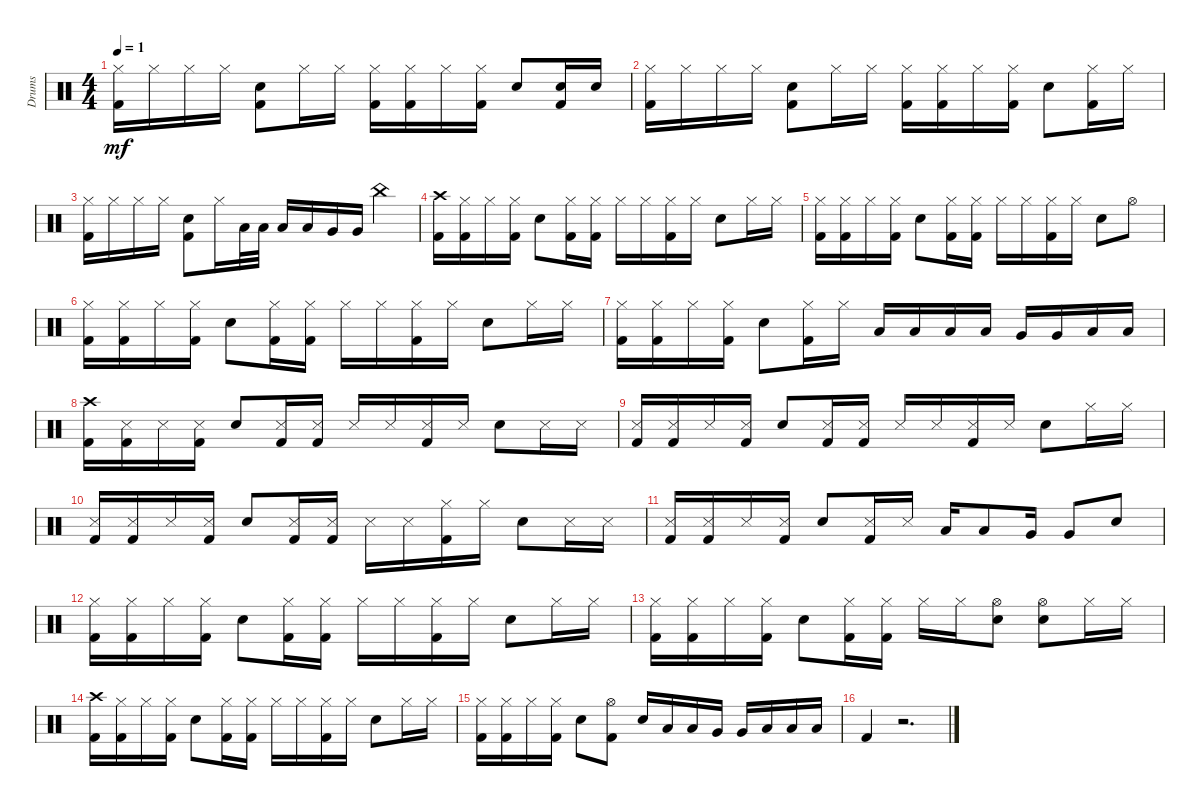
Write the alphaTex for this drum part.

\track ("Drums" "Drums") {instrument percussion}
\staff {score}
\articulation defaults
\ts (4 4)
\tempo 1
\clef neutral
\ks c
("Kick (hit) 2" "Hi-Hat (closed)").16{dy mf} "Hi-Hat (closed)".16 "Hi-Hat (closed)".16 "Hi-Hat (closed)".16 ("Kick (hit) 2" "Snare (hit) 2").8 "Hi-Hat (closed)".16 "Hi-Hat (closed)".16 ("Hi-Hat (closed)" "Kick (hit) 2").16 ("Hi-Hat (closed)" "Kick (hit) 2").16 "Hi-Hat (closed)".16 ("Hi-Hat (closed)" "Kick (hit) 2").16 "Snare (hit) 2".8 ("Snare (hit) 2" "Kick (hit) 2").16 "Snare (hit) 2".16 |
("Kick (hit) 2" "Hi-Hat (closed)").16 "Hi-Hat (closed)".16 "Hi-Hat (closed)".16 "Hi-Hat (closed)".16 ("Kick (hit) 2" "Snare (hit) 2").8 "Hi-Hat (closed)".16 "Hi-Hat (closed)".16 ("Hi-Hat (closed)" "Kick (hit) 2").16 ("Hi-Hat (closed)" "Kick (hit) 2").16 "Hi-Hat (closed)".16 ("Hi-Hat (closed)" "Kick (hit) 2").16 "Snare (hit) 2".8 ("Hi-Hat (closed)" "Kick (hit) 2").16 "Hi-Hat (closed)".16 |
("Kick (hit) 2" "Hi-Hat (closed)").16 "Hi-Hat (closed)".16 "Hi-Hat (closed)".16 "Hi-Hat (closed)".16 ("Kick (hit) 2" "Snare (hit) 2").8 "Hi-Hat (closed)".16 "Low Tom (hit)".32 "Low Tom (hit)".32 "Low Tom (hit)".16 "Low Tom (hit)".16 "Very Low Tom (hit)".16 "Very Low Tom (hit)".16 "China (hit)".4 |
("Kick (hit) 2" "Crash high (hit)").16 ("Hi-Hat (closed)" "Kick (hit) 2").16 "Hi-Hat (closed)".16 ("Hi-Hat (closed)" "Kick (hit) 2").16 "Snare (hit) 2".8 ("Hi-Hat (closed)" "Kick (hit) 2").16 ("Hi-Hat (closed)" "Kick (hit) 2").16 "Hi-Hat (closed)".16 "Hi-Hat (closed)".16 ("Hi-Hat (closed)" "Kick (hit) 2").16 "Hi-Hat (closed)".16 "Snare (hit) 2".8 "Hi-Hat (closed)".16 "Hi-Hat (closed)".16 |
("Hi-Hat (closed)" "Kick (hit) 2").16 ("Hi-Hat (closed)" "Kick (hit) 2").16 "Hi-Hat (closed)".16 ("Hi-Hat (closed)" "Kick (hit) 2").16 "Snare (hit) 2".8 ("Hi-Hat (closed)" "Kick (hit) 2").16 ("Hi-Hat (closed)" "Kick (hit) 2").16 "Hi-Hat (closed)".16 "Hi-Hat (closed)".16 ("Hi-Hat (closed)" "Kick (hit) 2").16 "Hi-Hat (closed)".16 "Snare (hit) 2".8 "Hi-Hat (open)".8 |
("Hi-Hat (closed)" "Kick (hit) 2").16 ("Hi-Hat (closed)" "Kick (hit) 2").16 "Hi-Hat (closed)".16 ("Hi-Hat (closed)" "Kick (hit) 2").16 "Snare (hit) 2".8 ("Hi-Hat (closed)" "Kick (hit) 2").16 ("Hi-Hat (closed)" "Kick (hit) 2").16 "Hi-Hat (closed)".16 "Hi-Hat (closed)".16 ("Hi-Hat (closed)" "Kick (hit) 2").16 "Hi-Hat (closed)".16 "Snare (hit) 2".8 "Hi-Hat (closed)".16 "Hi-Hat (closed)".16 |
("Hi-Hat (closed)" "Kick (hit) 2").16 ("Hi-Hat (closed)" "Kick (hit) 2").16 "Hi-Hat (closed)".16 ("Hi-Hat (closed)" "Kick (hit) 2").16 "Snare (hit) 2".8 ("Hi-Hat (closed)" "Kick (hit) 2").16 "Hi-Hat (closed)".16 "Low Tom (hit)".16 "Low Tom (hit)".16 "Low Tom (hit)".16 "Low Tom (hit)".16 "Very Low Tom (hit)".16 "Very Low Tom (hit)".16 "Low Floor Tom (hit)".16 "Low Floor Tom (hit)".16 |
("Kick (hit) 2" "Crash high (hit)").16 ("Kick (hit) 2" "Snare (side stick) 3").16 "Snare (side stick) 3".16 ("Kick (hit) 2" "Snare (side stick) 3").16 "Snare (hit) 2".8 ("Kick (hit) 2" "Snare (side stick) 3").16 ("Kick (hit) 2" "Snare (side stick) 3").16 "Snare (side stick) 3".16 "Snare (side stick) 3".16 ("Kick (hit) 2" "Snare (side stick) 3").16 "Snare (side stick) 3".16 "Snare (hit) 2".8 "Snare (side stick) 3".16 "Snare (side stick) 3".16 |
("Kick (hit) 2" "Snare (side stick) 3").16 ("Kick (hit) 2" "Snare (side stick) 3").16 "Snare (side stick) 3".16 ("Kick (hit) 2" "Snare (side stick) 3").16 "Snare (hit) 2".8 ("Kick (hit) 2" "Snare (side stick) 3").16 ("Kick (hit) 2" "Snare (side stick) 3").16 "Snare (side stick) 3".16 "Snare (side stick) 3".16 ("Kick (hit) 2" "Snare (side stick) 3").16 "Snare (side stick) 3".16 "Snare (hit) 2".8 "Hi-Hat (closed)".16 "Hi-Hat (closed)".16 |
("Kick (hit) 2" "Snare (side stick) 3").16 ("Kick (hit) 2" "Snare (side stick) 3").16 "Snare (side stick) 3".16 ("Kick (hit) 2" "Snare (side stick) 3").16 "Snare (hit) 2".8 ("Kick (hit) 2" "Snare (side stick) 3").16 ("Kick (hit) 2" "Snare (side stick) 3").16 "Snare (side stick) 3".16 "Snare (side stick) 3".16 ("Hi-Hat (closed)" "Kick (hit) 2").16 "Hi-Hat (closed)".16 "Snare (hit) 2".8 "Snare (side stick) 3".16 "Snare (side stick) 3".16 |
("Kick (hit) 2" "Snare (side stick) 3").16 ("Kick (hit) 2" "Snare (side stick) 3").16 "Snare (side stick) 3".16 ("Kick (hit) 2" "Snare (side stick) 3").16 "Snare (hit) 2".8 ("Kick (hit) 2" "Snare (side stick) 3").16 "Snare (side stick) 3".16 "Low Tom (hit)".16 "Low Tom (hit)".8 "Very Low Tom (hit)".16 "Very Low Tom (hit)".8 "Snare (hit) 2".8 |
("Hi-Hat (closed)" "Kick (hit) 2").16 ("Hi-Hat (closed)" "Kick (hit) 2").16 "Hi-Hat (closed)".16 ("Hi-Hat (closed)" "Kick (hit) 2").16 "Snare (hit) 2".8 ("Hi-Hat (closed)" "Kick (hit) 2").16 ("Hi-Hat (closed)" "Kick (hit) 2").16 "Hi-Hat (closed)".16 "Hi-Hat (closed)".16 ("Hi-Hat (closed)" "Kick (hit) 2").16 "Hi-Hat (closed)".16 "Snare (hit) 2".8 "Hi-Hat (closed)".16 "Hi-Hat (closed)".16 |
("Hi-Hat (closed)" "Kick (hit) 2").16 ("Hi-Hat (closed)" "Kick (hit) 2").16 "Hi-Hat (closed)".16 ("Hi-Hat (closed)" "Kick (hit) 2").16 "Snare (hit) 2".8 ("Hi-Hat (closed)" "Kick (hit) 2").16 ("Hi-Hat (closed)" "Kick (hit) 2").16 "Hi-Hat (closed)".16 "Hi-Hat (closed)".16 ("Snare (hit) 2" "Hi-Hat (open)").8 ("Snare (hit) 2" "Hi-Hat (open)").8 "Hi-Hat (closed)".16 "Hi-Hat (closed)".16 |
("Kick (hit) 2" "Crash high (hit)").16 ("Hi-Hat (closed)" "Kick (hit) 2").16 "Hi-Hat (closed)".16 ("Hi-Hat (closed)" "Kick (hit) 2").16 "Snare (hit) 2".8 ("Hi-Hat (closed)" "Kick (hit) 2").16 ("Hi-Hat (closed)" "Kick (hit) 2").16 "Hi-Hat (closed)".16 "Hi-Hat (closed)".16 ("Hi-Hat (closed)" "Kick (hit) 2").16 "Hi-Hat (closed)".16 "Snare (hit) 2".8 "Hi-Hat (closed)".16 "Hi-Hat (closed)".16 |
("Hi-Hat (closed)" "Kick (hit) 2").16 ("Hi-Hat (closed)" "Kick (hit) 2").16 "Hi-Hat (closed)".16 ("Hi-Hat (closed)" "Kick (hit) 2").16 "Snare (hit) 2".8 ("Hi-Hat (open)" "Kick (hit) 2").8 "Snare (hit) 2".16 "Low Tom (hit)".16 "Low Tom (hit)".16 "Very Low Tom (hit)".16 "Very Low Tom (hit)".16 "Low Floor Tom (hit)".16 "Low Floor Tom (hit)".16 "Low Floor Tom (hit)".16 |
"Kick (hit) 2".4 r.2{d}
